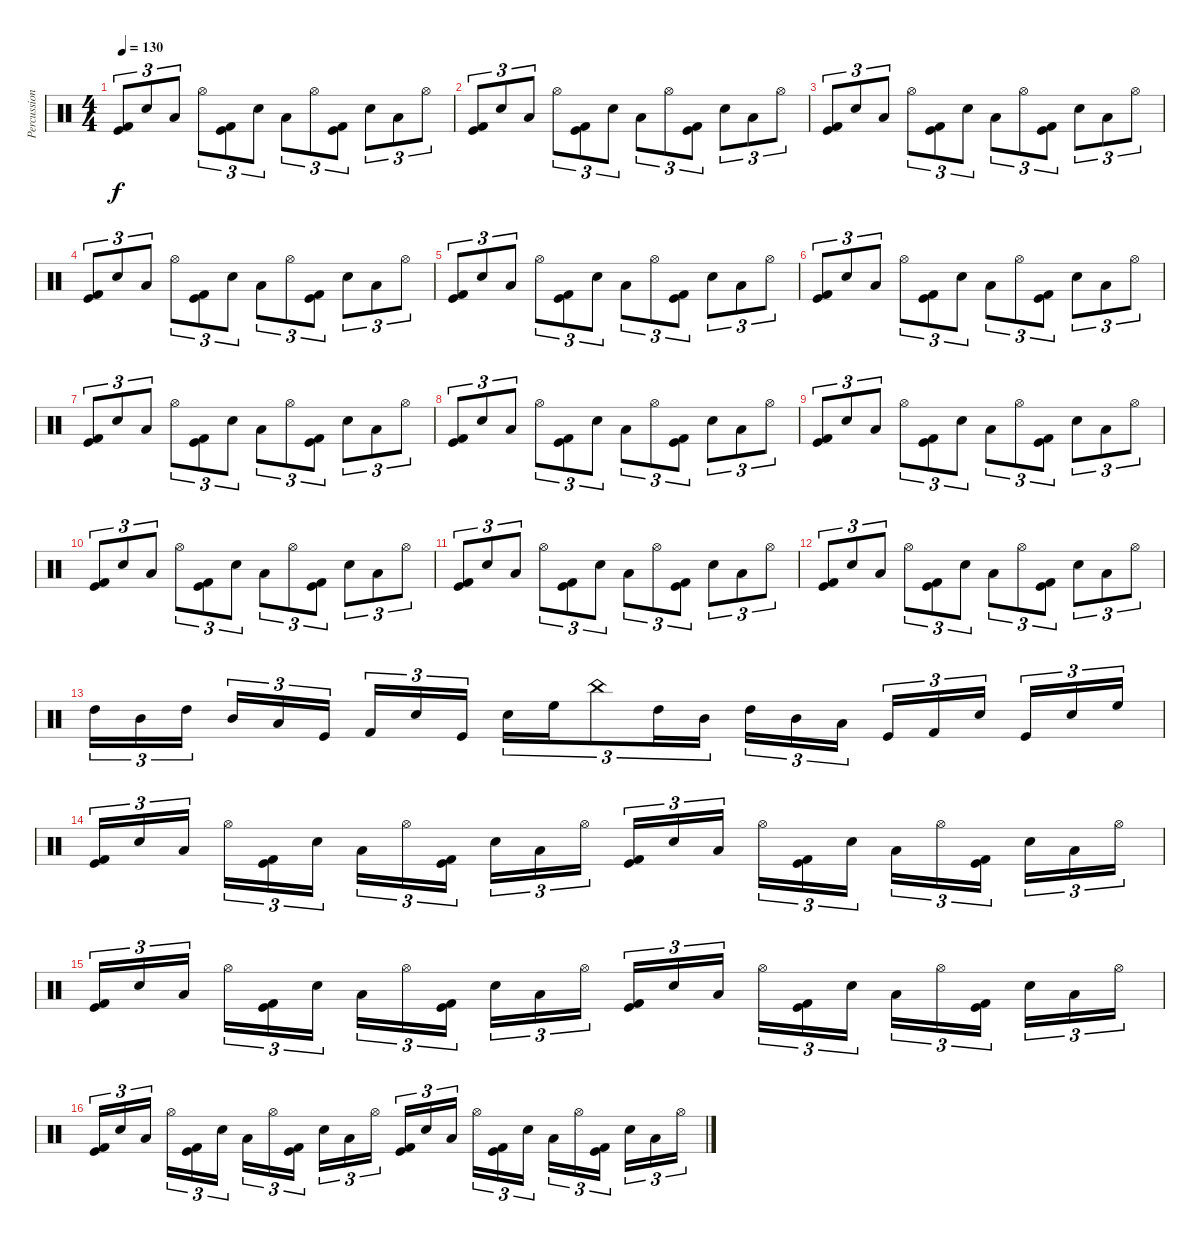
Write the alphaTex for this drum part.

\track ("Percussion" "Percussion") {instrument percussion}
\staff {score}
\articulation defaults
\ts (4 4)
\tempo 130
\clef neutral
\ks c
("Kick (hit)" "Kick (hit) 2").8{tu (3 2) dy f} "Snare (hit) 2".8{tu (3 2)} "Low Tom (hit)".8{tu (3 2)} "Hi-Hat (open)".8{tu (3 2)} ("Kick (hit)" "Kick (hit) 2").8{tu (3 2)} "Snare (hit) 2".8{tu (3 2)} "Low Tom (hit)".8{tu (3 2)} "Hi-Hat (open)".8{tu (3 2)} ("Kick (hit)" "Kick (hit) 2").8{tu (3 2)} "Snare (hit) 2".8{tu (3 2)} "Low Tom (hit)".8{tu (3 2)} "Hi-Hat (open)".8{tu (3 2)} |
("Kick (hit)" "Kick (hit) 2").8{tu (3 2)} "Snare (hit) 2".8{tu (3 2)} "Low Tom (hit)".8{tu (3 2)} "Hi-Hat (open)".8{tu (3 2)} ("Kick (hit)" "Kick (hit) 2").8{tu (3 2)} "Snare (hit) 2".8{tu (3 2)} "Low Tom (hit)".8{tu (3 2)} "Hi-Hat (open)".8{tu (3 2)} ("Kick (hit)" "Kick (hit) 2").8{tu (3 2)} "Snare (hit) 2".8{tu (3 2)} "Low Tom (hit)".8{tu (3 2)} "Hi-Hat (open)".8{tu (3 2)} |
("Kick (hit)" "Kick (hit) 2").8{tu (3 2)} "Snare (hit) 2".8{tu (3 2)} "Low Tom (hit)".8{tu (3 2)} "Hi-Hat (open)".8{tu (3 2)} ("Kick (hit)" "Kick (hit) 2").8{tu (3 2)} "Snare (hit) 2".8{tu (3 2)} "Low Tom (hit)".8{tu (3 2)} "Hi-Hat (open)".8{tu (3 2)} ("Kick (hit)" "Kick (hit) 2").8{tu (3 2)} "Snare (hit) 2".8{tu (3 2)} "Low Tom (hit)".8{tu (3 2)} "Hi-Hat (open)".8{tu (3 2)} |
("Kick (hit)" "Kick (hit) 2").8{tu (3 2)} "Snare (hit) 2".8{tu (3 2)} "Low Tom (hit)".8{tu (3 2)} "Hi-Hat (open)".8{tu (3 2)} ("Kick (hit)" "Kick (hit) 2").8{tu (3 2)} "Snare (hit) 2".8{tu (3 2)} "Low Tom (hit)".8{tu (3 2)} "Hi-Hat (open)".8{tu (3 2)} ("Kick (hit)" "Kick (hit) 2").8{tu (3 2)} "Snare (hit) 2".8{tu (3 2)} "Low Tom (hit)".8{tu (3 2)} "Hi-Hat (open)".8{tu (3 2)} |
("Kick (hit)" "Kick (hit) 2").8{tu (3 2)} "Snare (hit) 2".8{tu (3 2)} "Low Tom (hit)".8{tu (3 2)} "Hi-Hat (open)".8{tu (3 2)} ("Kick (hit)" "Kick (hit) 2").8{tu (3 2)} "Snare (hit) 2".8{tu (3 2)} "Low Tom (hit)".8{tu (3 2)} "Hi-Hat (open)".8{tu (3 2)} ("Kick (hit)" "Kick (hit) 2").8{tu (3 2)} "Snare (hit) 2".8{tu (3 2)} "Low Tom (hit)".8{tu (3 2)} "Hi-Hat (open)".8{tu (3 2)} |
("Kick (hit)" "Kick (hit) 2").8{tu (3 2)} "Snare (hit) 2".8{tu (3 2)} "Low Tom (hit)".8{tu (3 2)} "Hi-Hat (open)".8{tu (3 2)} ("Kick (hit)" "Kick (hit) 2").8{tu (3 2)} "Snare (hit) 2".8{tu (3 2)} "Low Tom (hit)".8{tu (3 2)} "Hi-Hat (open)".8{tu (3 2)} ("Kick (hit)" "Kick (hit) 2").8{tu (3 2)} "Snare (hit) 2".8{tu (3 2)} "Low Tom (hit)".8{tu (3 2)} "Hi-Hat (open)".8{tu (3 2)} |
("Kick (hit)" "Kick (hit) 2").8{tu (3 2)} "Snare (hit) 2".8{tu (3 2)} "Low Tom (hit)".8{tu (3 2)} "Hi-Hat (open)".8{tu (3 2)} ("Kick (hit)" "Kick (hit) 2").8{tu (3 2)} "Snare (hit) 2".8{tu (3 2)} "Low Tom (hit)".8{tu (3 2)} "Hi-Hat (open)".8{tu (3 2)} ("Kick (hit)" "Kick (hit) 2").8{tu (3 2)} "Snare (hit) 2".8{tu (3 2)} "Low Tom (hit)".8{tu (3 2)} "Hi-Hat (open)".8{tu (3 2)} |
("Kick (hit)" "Kick (hit) 2").8{tu (3 2)} "Snare (hit) 2".8{tu (3 2)} "Low Tom (hit)".8{tu (3 2)} "Hi-Hat (open)".8{tu (3 2)} ("Kick (hit)" "Kick (hit) 2").8{tu (3 2)} "Snare (hit) 2".8{tu (3 2)} "Low Tom (hit)".8{tu (3 2)} "Hi-Hat (open)".8{tu (3 2)} ("Kick (hit)" "Kick (hit) 2").8{tu (3 2)} "Snare (hit) 2".8{tu (3 2)} "Low Tom (hit)".8{tu (3 2)} "Hi-Hat (open)".8{tu (3 2)} |
("Kick (hit)" "Kick (hit) 2").8{tu (3 2)} "Snare (hit) 2".8{tu (3 2)} "Low Tom (hit)".8{tu (3 2)} "Hi-Hat (open)".8{tu (3 2)} ("Kick (hit)" "Kick (hit) 2").8{tu (3 2)} "Snare (hit) 2".8{tu (3 2)} "Low Tom (hit)".8{tu (3 2)} "Hi-Hat (open)".8{tu (3 2)} ("Kick (hit)" "Kick (hit) 2").8{tu (3 2)} "Snare (hit) 2".8{tu (3 2)} "Low Tom (hit)".8{tu (3 2)} "Hi-Hat (open)".8{tu (3 2)} |
("Kick (hit)" "Kick (hit) 2").8{tu (3 2)} "Snare (hit) 2".8{tu (3 2)} "Low Tom (hit)".8{tu (3 2)} "Hi-Hat (open)".8{tu (3 2)} ("Kick (hit)" "Kick (hit) 2").8{tu (3 2)} "Snare (hit) 2".8{tu (3 2)} "Low Tom (hit)".8{tu (3 2)} "Hi-Hat (open)".8{tu (3 2)} ("Kick (hit)" "Kick (hit) 2").8{tu (3 2)} "Snare (hit) 2".8{tu (3 2)} "Low Tom (hit)".8{tu (3 2)} "Hi-Hat (open)".8{tu (3 2)} |
("Kick (hit)" "Kick (hit) 2").8{tu (3 2)} "Snare (hit) 2".8{tu (3 2)} "Low Tom (hit)".8{tu (3 2)} "Hi-Hat (open)".8{tu (3 2)} ("Kick (hit)" "Kick (hit) 2").8{tu (3 2)} "Snare (hit) 2".8{tu (3 2)} "Low Tom (hit)".8{tu (3 2)} "Hi-Hat (open)".8{tu (3 2)} ("Kick (hit)" "Kick (hit) 2").8{tu (3 2)} "Snare (hit) 2".8{tu (3 2)} "Low Tom (hit)".8{tu (3 2)} "Hi-Hat (open)".8{tu (3 2)} |
("Kick (hit)" "Kick (hit) 2").8{tu (3 2)} "Snare (hit) 2".8{tu (3 2)} "Low Tom (hit)".8{tu (3 2)} "Hi-Hat (open)".8{tu (3 2)} ("Kick (hit)" "Kick (hit) 2").8{tu (3 2)} "Snare (hit) 2".8{tu (3 2)} "Low Tom (hit)".8{tu (3 2)} "Hi-Hat (open)".8{tu (3 2)} ("Kick (hit)" "Kick (hit) 2").8{tu (3 2)} "Snare (hit) 2".8{tu (3 2)} "Low Tom (hit)".8{tu (3 2)} "Hi-Hat (open)".8{tu (3 2)} |
"High Tom (hit)".16{tu (3 2)} "Mid Tom (hit)".16{tu (3 2)} "High Tom (hit)".16{tu (3 2)} "Mid Tom (hit)".16{tu (3 2)} "Low Tom (hit)".16{tu (3 2)} "Kick (hit)".16{tu (3 2)} "Kick (hit) 2".16{tu (3 2)} "Snare (hit) 2".16{tu (3 2)} "Kick (hit)".16{tu (3 2)} "Snare (hit) 2".16{tu (3 2)} "High Floor Tom (hit)".16{tu (3 2)} "China (hit)".8{tu (3 2)} "High Tom (hit)".16{tu (3 2)} "Mid Tom (hit)".16{tu (3 2)} "High Tom (hit)".16{tu (3 2)} "Mid Tom (hit)".16{tu (3 2)} "Low Tom (hit)".16{tu (3 2)} "Kick (hit)".16{tu (3 2)} "Kick (hit) 2".16{tu (3 2)} "Snare (hit) 2".16{tu (3 2)} "Kick (hit)".16{tu (3 2)} "Snare (hit) 2".16{tu (3 2)} "High Floor Tom (hit)".16{tu (3 2)} |
("Kick (hit)" "Kick (hit) 2").16{tu (3 2)} "Snare (hit) 2".16{tu (3 2)} "Low Tom (hit)".16{tu (3 2)} "Hi-Hat (open)".16{tu (3 2)} ("Kick (hit)" "Kick (hit) 2").16{tu (3 2)} "Snare (hit) 2".16{tu (3 2)} "Low Tom (hit)".16{tu (3 2)} "Hi-Hat (open)".16{tu (3 2)} ("Kick (hit)" "Kick (hit) 2").16{tu (3 2)} "Snare (hit) 2".16{tu (3 2)} "Low Tom (hit)".16{tu (3 2)} "Hi-Hat (open)".16{tu (3 2)} ("Kick (hit)" "Kick (hit) 2").16{tu (3 2)} "Snare (hit) 2".16{tu (3 2)} "Low Tom (hit)".16{tu (3 2)} "Hi-Hat (open)".16{tu (3 2)} ("Kick (hit)" "Kick (hit) 2").16{tu (3 2)} "Snare (hit) 2".16{tu (3 2)} "Low Tom (hit)".16{tu (3 2)} "Hi-Hat (open)".16{tu (3 2)} ("Kick (hit)" "Kick (hit) 2").16{tu (3 2)} "Snare (hit) 2".16{tu (3 2)} "Low Tom (hit)".16{tu (3 2)} "Hi-Hat (open)".16{tu (3 2)} |
("Kick (hit)" "Kick (hit) 2").16{tu (3 2)} "Snare (hit) 2".16{tu (3 2)} "Low Tom (hit)".16{tu (3 2)} "Hi-Hat (open)".16{tu (3 2)} ("Kick (hit)" "Kick (hit) 2").16{tu (3 2)} "Snare (hit) 2".16{tu (3 2)} "Low Tom (hit)".16{tu (3 2)} "Hi-Hat (open)".16{tu (3 2)} ("Kick (hit)" "Kick (hit) 2").16{tu (3 2)} "Snare (hit) 2".16{tu (3 2)} "Low Tom (hit)".16{tu (3 2)} "Hi-Hat (open)".16{tu (3 2)} ("Kick (hit)" "Kick (hit) 2").16{tu (3 2)} "Snare (hit) 2".16{tu (3 2)} "Low Tom (hit)".16{tu (3 2)} "Hi-Hat (open)".16{tu (3 2)} ("Kick (hit)" "Kick (hit) 2").16{tu (3 2)} "Snare (hit) 2".16{tu (3 2)} "Low Tom (hit)".16{tu (3 2)} "Hi-Hat (open)".16{tu (3 2)} ("Kick (hit)" "Kick (hit) 2").16{tu (3 2)} "Snare (hit) 2".16{tu (3 2)} "Low Tom (hit)".16{tu (3 2)} "Hi-Hat (open)".16{tu (3 2)} |
("Kick (hit)" "Kick (hit) 2").16{tu (3 2)} "Snare (hit) 2".16{tu (3 2)} "Low Tom (hit)".16{tu (3 2)} "Hi-Hat (open)".16{tu (3 2)} ("Kick (hit)" "Kick (hit) 2").16{tu (3 2)} "Snare (hit) 2".16{tu (3 2)} "Low Tom (hit)".16{tu (3 2)} "Hi-Hat (open)".16{tu (3 2)} ("Kick (hit)" "Kick (hit) 2").16{tu (3 2)} "Snare (hit) 2".16{tu (3 2)} "Low Tom (hit)".16{tu (3 2)} "Hi-Hat (open)".16{tu (3 2)} ("Kick (hit)" "Kick (hit) 2").16{tu (3 2)} "Snare (hit) 2".16{tu (3 2)} "Low Tom (hit)".16{tu (3 2)} "Hi-Hat (open)".16{tu (3 2)} ("Kick (hit)" "Kick (hit) 2").16{tu (3 2)} "Snare (hit) 2".16{tu (3 2)} "Low Tom (hit)".16{tu (3 2)} "Hi-Hat (open)".16{tu (3 2)} ("Kick (hit)" "Kick (hit) 2").16{tu (3 2)} "Snare (hit) 2".16{tu (3 2)} "Low Tom (hit)".16{tu (3 2)} "Hi-Hat (open)".16{tu (3 2)}
